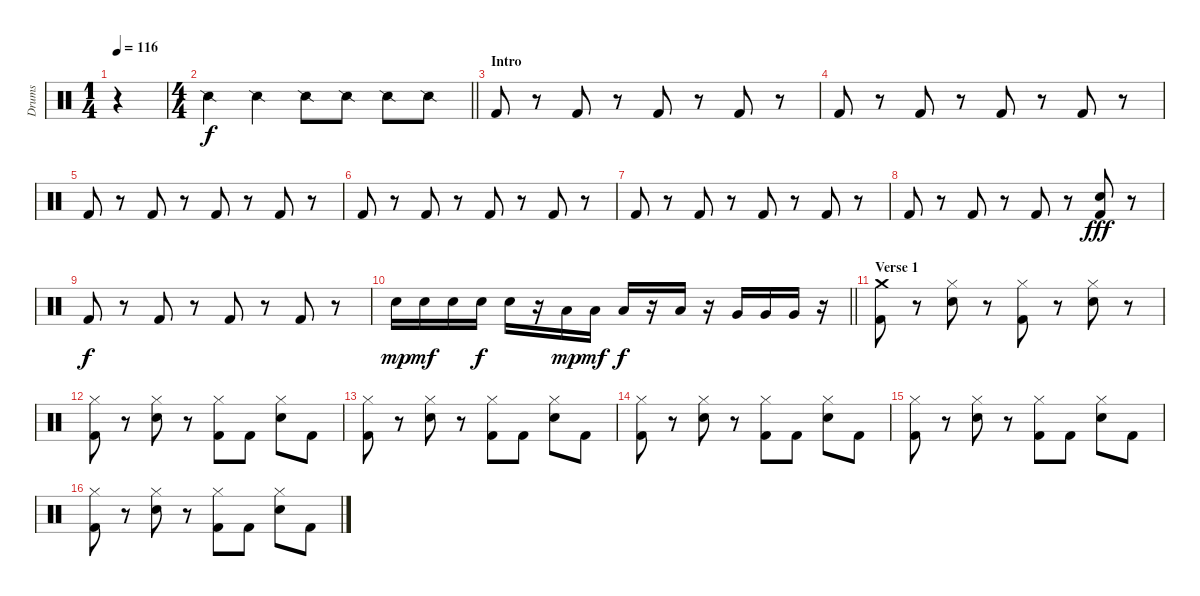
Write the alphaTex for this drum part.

\track ("Drums" "Drums") {instrument percussion}
\staff {score}
\articulation defaults
\ts (1 4)
\tempo 116
\clef neutral
\ks c
r.4{dy f} |
\ts (4 4)
\barLineRight lightlight "Snare (side stick) 2".4 "Snare (side stick) 2".4 "Snare (side stick) 2".8 "Snare (side stick) 2".8 "Snare (side stick) 2".8 "Snare (side stick) 2".8
|
\section ("" "Intro")
"Kick (hit) 2".8 r.8 "Kick (hit) 2".8 r.8 "Kick (hit) 2".8 r.8 "Kick (hit) 2".8 r.8 |
"Kick (hit) 2".8 r.8 "Kick (hit) 2".8 r.8 "Kick (hit) 2".8 r.8 "Kick (hit) 2".8 r.8 |
"Kick (hit) 2".8 r.8 "Kick (hit) 2".8 r.8 "Kick (hit) 2".8 r.8 "Kick (hit) 2".8 r.8 |
"Kick (hit) 2".8 r.8 "Kick (hit) 2".8 r.8 "Kick (hit) 2".8 r.8 "Kick (hit) 2".8 r.8 |
"Kick (hit) 2".8 r.8 "Kick (hit) 2".8 r.8 "Kick (hit) 2".8 r.8 "Kick (hit) 2".8 r.8 |
"Kick (hit) 2".8 r.8 "Kick (hit) 2".8 r.8 "Kick (hit) 2".8 r.8 ("Snare (hit) 2" "Kick (hit) 2").8{dy fff} r.8 |
"Kick (hit) 2".8{dy f} r.8 "Kick (hit) 2".8 r.8 "Kick (hit) 2".8 r.8 "Kick (hit) 2".8 r.8 |
\barLineRight lightlight "Snare (hit) 2".16{dy mp} "Snare (hit) 2".16{dy mf} "Snare (hit) 2".16 "Snare (hit) 2".16{dy f} "Snare (hit) 2".16
r.16 "Low Tom (hit)".16{dy mp} "Low Tom (hit)".16{dy mf} "Low Tom (hit)".16{dy f} r.16 "Low Tom (hit)".16 r.16 "Very Low Tom (hit)".16 "Very Low Tom (hit)".16 "Very Low Tom (hit)".16 r.16 |
\section ("" "Verse 1")
("Crash medium (hit)" "Kick (hit) 2").8 r.8 ("Hi-Hat (closed)" "Snare (hit) 2").8 r.8 ("Hi-Hat (closed)" "Kick (hit) 2").8 r.8 ("Hi-Hat (closed)" "Snare (hit) 2").8 r.8 |
("Hi-Hat (closed)" "Kick (hit) 2").8 r.8 ("Hi-Hat (closed)" "Snare (hit) 2").8 r.8 ("Hi-Hat (closed)" "Kick (hit) 2").8 "Kick (hit) 2".8 ("Hi-Hat (closed)" "Snare (hit) 2").8 "Kick (hit) 2".8 |
("Hi-Hat (closed)" "Kick (hit) 2").8 r.8 ("Hi-Hat (closed)" "Snare (hit) 2").8 r.8 ("Hi-Hat (closed)" "Kick (hit) 2").8 "Kick (hit) 2".8 ("Hi-Hat (closed)" "Snare (hit) 2").8 "Kick (hit) 2".8 |
("Hi-Hat (closed)" "Kick (hit) 2").8 r.8 ("Hi-Hat (closed)" "Snare (hit) 2").8 r.8 ("Hi-Hat (closed)" "Kick (hit) 2").8 "Kick (hit) 2".8 ("Hi-Hat (closed)" "Snare (hit) 2").8 "Kick (hit) 2".8 |
("Hi-Hat (closed)" "Kick (hit) 2").8 r.8 ("Hi-Hat (closed)" "Snare (hit) 2").8 r.8 ("Hi-Hat (closed)" "Kick (hit) 2").8 "Kick (hit) 2".8 ("Hi-Hat (closed)" "Snare (hit) 2").8 "Kick (hit) 2".8 |
("Hi-Hat (closed)" "Kick (hit) 2").8 r.8 ("Hi-Hat (closed)" "Snare (hit) 2").8 r.8 ("Hi-Hat (closed)" "Kick (hit) 2").8 "Kick (hit) 2".8 ("Hi-Hat (closed)" "Snare (hit) 2").8 "Kick (hit) 2".8
